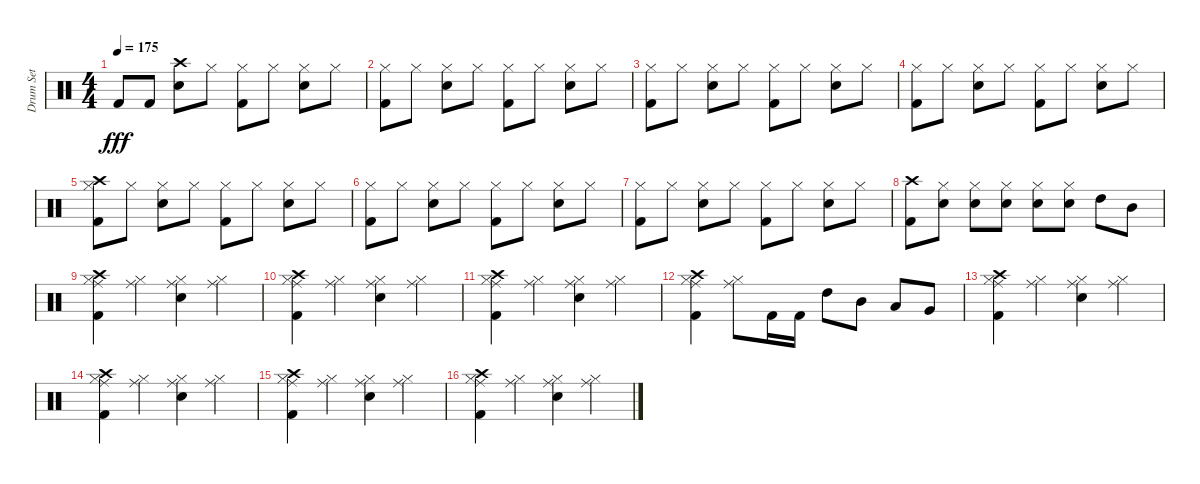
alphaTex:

\track ("Drum Set" "Drum Set") {instrument percussion}
\staff {score}
\articulation defaults
\ts (4 4)
\tempo 175
\clef neutral
\ks c "Kick (hit) 2".8{dy fff} "Kick (hit) 2".8
("Electric Snare (hit)" "Crash high (hit)").8 "Hi-Hat (closed)".8 ("Kick (hit) 2" "Hi-Hat (closed)").8 "Hi-Hat (closed)".8 ("Electric Snare (hit)" "Hi-Hat (closed)").8 "Hi-Hat (closed)".8 |
("Kick (hit) 2" "Hi-Hat (closed)").8 "Hi-Hat (closed)".8 ("Electric Snare (hit)" "Hi-Hat (closed)").8 "Hi-Hat (closed)".8 ("Kick (hit) 2" "Hi-Hat (closed)").8 "Hi-Hat (closed)".8 ("Electric Snare (hit)" "Hi-Hat (closed)").8 "Hi-Hat (closed)".8 |
("Kick (hit) 2" "Hi-Hat (closed)").8 "Hi-Hat (closed)".8 ("Electric Snare (hit)" "Hi-Hat (closed)").8 "Hi-Hat (closed)".8 ("Kick (hit) 2" "Hi-Hat (closed)").8 "Hi-Hat (closed)".8 ("Electric Snare (hit)" "Hi-Hat (closed)").8 "Hi-Hat (closed)".8 |
("Kick (hit) 2" "Hi-Hat (closed)").8 "Hi-Hat (closed)".8 ("Electric Snare (hit)" "Hi-Hat (closed)").8 "Hi-Hat (closed)".8 ("Kick (hit) 2" "Hi-Hat (closed)").8 "Hi-Hat (closed)".8 ("Electric Snare (hit)" "Hi-Hat (closed)").8 "Hi-Hat (closed)".8 |
("Kick (hit) 2" "Crash high (hit)" "Hi-Hat (closed)").8 "Hi-Hat (closed)".8 ("Electric Snare (hit)" "Hi-Hat (closed)").8 "Hi-Hat (closed)".8 ("Kick (hit) 2" "Hi-Hat (closed)").8 "Hi-Hat (closed)".8 ("Electric Snare (hit)" "Hi-Hat (closed)").8 "Hi-Hat (closed)".8 |
("Kick (hit) 2" "Hi-Hat (closed)").8 "Hi-Hat (closed)".8 ("Electric Snare (hit)" "Hi-Hat (closed)").8 "Hi-Hat (closed)".8 ("Kick (hit) 2" "Hi-Hat (closed)").8 "Hi-Hat (closed)".8 ("Electric Snare (hit)" "Hi-Hat (closed)").8 "Hi-Hat (closed)".8 |
("Kick (hit) 2" "Hi-Hat (closed)").8 "Hi-Hat (closed)".8 ("Electric Snare (hit)" "Hi-Hat (closed)").8 "Hi-Hat (closed)".8 ("Kick (hit) 2" "Hi-Hat (closed)").8 "Hi-Hat (closed)".8 ("Electric Snare (hit)" "Hi-Hat (closed)").8 "Hi-Hat (closed)".8 |
("Kick (hit) 2" "Crash high (hit)").8 ("Hi-Hat (closed)" "Electric Snare (hit)").8 ("Hi-Hat (closed)" "Electric Snare (hit)").8 ("Hi-Hat (closed)" "Electric Snare (hit)").8 ("Hi-Hat (closed)" "Electric Snare (hit)").8 ("Electric Snare (hit)" "Hi-Hat (closed)").8 "High Tom (hit)".8 "Mid Tom (hit)".8 |
("Kick (hit) 2" "Hi-Hat (closed)" "Crash high (hit)" "Ride (middle)").4 ("Ride (middle)" "Hi-Hat (closed)").4 ("Electric Snare (hit)" "Ride (middle)" "Hi-Hat (closed)").4 ("Ride (middle)" "Hi-Hat (closed)").4 |
("Kick (hit) 2" "Ride (middle)" "Hi-Hat (closed)" "Crash high (hit)").4 ("Ride (middle)" "Hi-Hat (closed)").4 ("Electric Snare (hit)" "Ride (middle)" "Hi-Hat (closed)").4 ("Ride (middle)" "Hi-Hat (closed)").4 |
("Kick (hit) 2" "Hi-Hat (closed)" "Crash high (hit)" "Ride (middle)").4 ("Hi-Hat (closed)" "Ride (middle)").4 ("Electric Snare (hit)" "Ride (middle)" "Hi-Hat (closed)").4 ("Hi-Hat (closed)" "Ride (middle)").4 |
("Kick (hit) 2" "Hi-Hat (closed)" "Ride (middle)" "Crash high (hit)").4 ("Ride (middle)" "Hi-Hat (closed)").8 "Kick (hit) 2".16 "Kick (hit) 2".16 "High Tom (hit)".8 "Mid Tom (hit)".8 "Low Tom (hit)".8 "Very Low Tom (hit)".8 |
("Kick (hit) 2" "Crash high (hit)" "Ride (middle)" "Hi-Hat (closed)").4 ("Ride (middle)" "Hi-Hat (closed)").4 ("Electric Snare (hit)" "Hi-Hat (closed)" "Ride (middle)").4 ("Ride (middle)" "Hi-Hat (closed)").4 |
("Kick (hit) 2" "Crash high (hit)" "Ride (middle)" "Hi-Hat (closed)").4 ("Ride (middle)" "Hi-Hat (closed)").4 ("Electric Snare (hit)" "Ride (middle)" "Hi-Hat (closed)").4 ("Hi-Hat (closed)" "Ride (middle)").4 |
("Kick (hit) 2" "Crash high (hit)" "Ride (middle)" "Hi-Hat (closed)").4 ("Hi-Hat (closed)" "Ride (middle)").4 ("Electric Snare (hit)" "Ride (middle)" "Hi-Hat (closed)").4 ("Hi-Hat (closed)" "Ride (middle)").4 |
("Kick (hit) 2" "Hi-Hat (closed)" "Ride (middle)" "Crash high (hit)").4 ("Hi-Hat (closed)" "Ride (middle)").4 ("Electric Snare (hit)" "Ride (middle)" "Hi-Hat (closed)").4 ("Hi-Hat (closed)" "Ride (middle)").4
